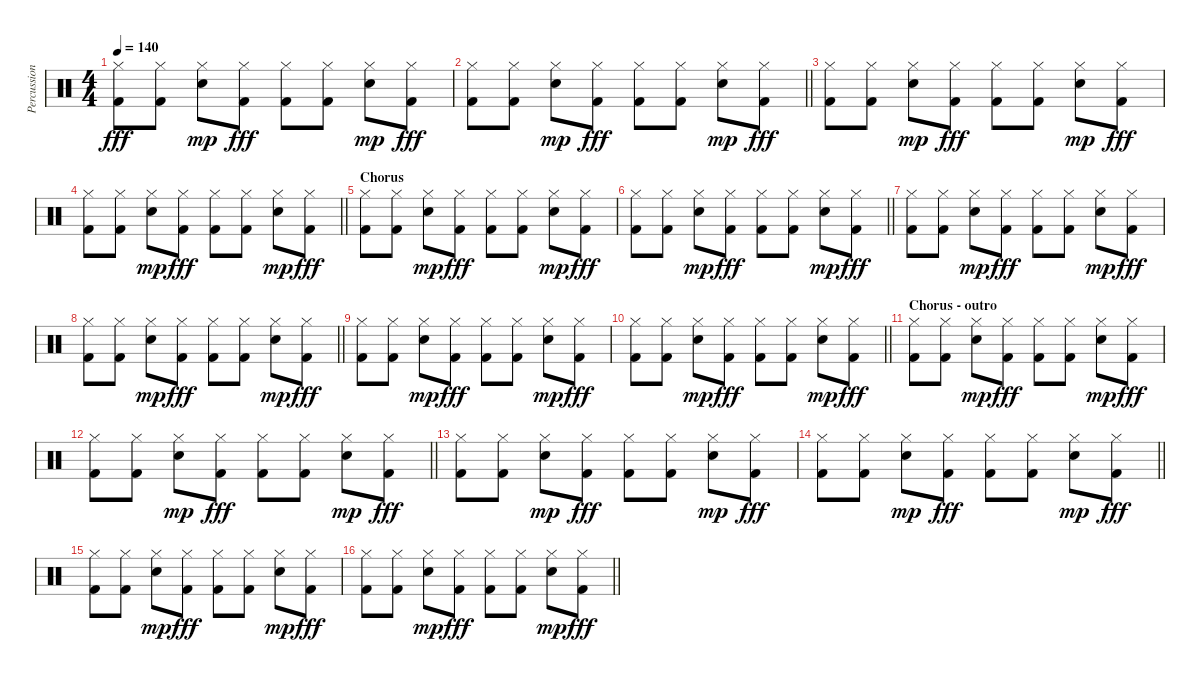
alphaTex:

\track ("Percussioni" "Percussion") {instrument percussion}
\staff {score}
\articulation defaults
\ts (4 4)
\tempo 140
\clef neutral
\ks c
("Hi-Hat (closed)" "Kick (hit) 2").8{dy fff} ("Hi-Hat (closed)" "Kick (hit) 2").8 ("Hi-Hat (closed)" "Snare (hit) 2").8{dy mp} ("Hi-Hat (closed)" "Kick (hit) 2").8{dy fff} ("Hi-Hat (closed)" "Kick (hit) 2").8 ("Hi-Hat (closed)" "Kick (hit) 2").8 ("Hi-Hat (closed)" "Snare (hit) 2").8{dy mp} ("Hi-Hat (closed)" "Kick (hit) 2").8{dy fff} |
\barLineRight lightlight
("Hi-Hat (closed)" "Kick (hit) 2").8 ("Hi-Hat (closed)" "Kick (hit) 2").8 ("Hi-Hat (closed)" "Snare (hit) 2").8{dy mp} ("Hi-Hat (closed)" "Kick (hit) 2").8{dy fff} ("Hi-Hat (closed)" "Kick (hit) 2").8 ("Hi-Hat (closed)" "Kick (hit) 2").8 ("Hi-Hat (closed)" "Snare (hit) 2").8{dy mp} ("Hi-Hat (closed)" "Kick (hit) 2").8{dy fff} |
("Hi-Hat (closed)" "Kick (hit) 2").8 ("Hi-Hat (closed)" "Kick (hit) 2").8 ("Hi-Hat (closed)" "Snare (hit) 2").8{dy mp} ("Hi-Hat (closed)" "Kick (hit) 2").8{dy fff} ("Hi-Hat (closed)" "Kick (hit) 2").8 ("Hi-Hat (closed)" "Kick (hit) 2").8 ("Hi-Hat (closed)" "Snare (hit) 2").8{dy mp} ("Hi-Hat (closed)" "Kick (hit) 2").8{dy fff} |
\barLineRight lightlight
("Hi-Hat (closed)" "Kick (hit) 2").8 ("Hi-Hat (closed)" "Kick (hit) 2").8 ("Hi-Hat (closed)" "Snare (hit) 2").8{dy mp} ("Hi-Hat (closed)" "Kick (hit) 2").8{dy fff} ("Hi-Hat (closed)" "Kick (hit) 2").8 ("Hi-Hat (closed)" "Kick (hit) 2").8 ("Hi-Hat (closed)" "Snare (hit) 2").8{dy mp} ("Hi-Hat (closed)" "Kick (hit) 2").8{dy fff} |
\section ("" "Chorus")
("Hi-Hat (closed)" "Kick (hit) 2").8 ("Hi-Hat (closed)" "Kick (hit) 2").8 ("Hi-Hat (closed)" "Snare (hit) 2").8{dy mp} ("Hi-Hat (closed)" "Kick (hit) 2").8{dy fff} ("Hi-Hat (closed)" "Kick (hit) 2").8 ("Hi-Hat (closed)" "Kick (hit) 2").8 ("Hi-Hat (closed)" "Snare (hit) 2").8{dy mp} ("Hi-Hat (closed)" "Kick (hit) 2").8{dy fff} |
\barLineRight lightlight
("Hi-Hat (closed)" "Kick (hit) 2").8 ("Hi-Hat (closed)" "Kick (hit) 2").8 ("Hi-Hat (closed)" "Snare (hit) 2").8{dy mp} ("Hi-Hat (closed)" "Kick (hit) 2").8{dy fff} ("Hi-Hat (closed)" "Kick (hit) 2").8 ("Hi-Hat (closed)" "Kick (hit) 2").8 ("Hi-Hat (closed)" "Snare (hit) 2").8{dy mp} ("Hi-Hat (closed)" "Kick (hit) 2").8{dy fff} |
("Hi-Hat (closed)" "Kick (hit) 2").8 ("Hi-Hat (closed)" "Kick (hit) 2").8 ("Hi-Hat (closed)" "Snare (hit) 2").8{dy mp} ("Hi-Hat (closed)" "Kick (hit) 2").8{dy fff} ("Hi-Hat (closed)" "Kick (hit) 2").8 ("Hi-Hat (closed)" "Kick (hit) 2").8 ("Hi-Hat (closed)" "Snare (hit) 2").8{dy mp} ("Hi-Hat (closed)" "Kick (hit) 2").8{dy fff} |
\barLineRight lightlight
("Hi-Hat (closed)" "Kick (hit) 2").8 ("Hi-Hat (closed)" "Kick (hit) 2").8 ("Hi-Hat (closed)" "Snare (hit) 2").8{dy mp} ("Hi-Hat (closed)" "Kick (hit) 2").8{dy fff} ("Hi-Hat (closed)" "Kick (hit) 2").8 ("Hi-Hat (closed)" "Kick (hit) 2").8 ("Hi-Hat (closed)" "Snare (hit) 2").8{dy mp} ("Hi-Hat (closed)" "Kick (hit) 2").8{dy fff} |
("Hi-Hat (closed)" "Kick (hit) 2").8 ("Hi-Hat (closed)" "Kick (hit) 2").8 ("Hi-Hat (closed)" "Snare (hit) 2").8{dy mp} ("Hi-Hat (closed)" "Kick (hit) 2").8{dy fff} ("Hi-Hat (closed)" "Kick (hit) 2").8 ("Hi-Hat (closed)" "Kick (hit) 2").8 ("Hi-Hat (closed)" "Snare (hit) 2").8{dy mp} ("Hi-Hat (closed)" "Kick (hit) 2").8{dy fff} |
\barLineRight lightlight
("Hi-Hat (closed)" "Kick (hit) 2").8 ("Hi-Hat (closed)" "Kick (hit) 2").8 ("Hi-Hat (closed)" "Snare (hit) 2").8{dy mp} ("Hi-Hat (closed)" "Kick (hit) 2").8{dy fff} ("Hi-Hat (closed)" "Kick (hit) 2").8 ("Hi-Hat (closed)" "Kick (hit) 2").8 ("Hi-Hat (closed)" "Snare (hit) 2").8{dy mp} ("Hi-Hat (closed)" "Kick (hit) 2").8{dy fff} |
\section ("" "Chorus - outro")
("Hi-Hat (closed)" "Kick (hit) 2").8 ("Hi-Hat (closed)" "Kick (hit) 2").8 ("Hi-Hat (closed)" "Snare (hit) 2").8{dy mp} ("Hi-Hat (closed)" "Kick (hit) 2").8{dy fff} ("Hi-Hat (closed)" "Kick (hit) 2").8 ("Hi-Hat (closed)" "Kick (hit) 2").8 ("Hi-Hat (closed)" "Snare (hit) 2").8{dy mp} ("Hi-Hat (closed)" "Kick (hit) 2").8{dy fff} |
\barLineRight lightlight
("Hi-Hat (closed)" "Kick (hit) 2").8 ("Hi-Hat (closed)" "Kick (hit) 2").8 ("Hi-Hat (closed)" "Snare (hit) 2").8{dy mp} ("Hi-Hat (closed)" "Kick (hit) 2").8{dy fff} ("Hi-Hat (closed)" "Kick (hit) 2").8 ("Hi-Hat (closed)" "Kick (hit) 2").8 ("Hi-Hat (closed)" "Snare (hit) 2").8{dy mp} ("Hi-Hat (closed)" "Kick (hit) 2").8{dy fff} |
("Hi-Hat (closed)" "Kick (hit) 2").8 ("Hi-Hat (closed)" "Kick (hit) 2").8 ("Hi-Hat (closed)" "Snare (hit) 2").8{dy mp} ("Hi-Hat (closed)" "Kick (hit) 2").8{dy fff} ("Hi-Hat (closed)" "Kick (hit) 2").8 ("Hi-Hat (closed)" "Kick (hit) 2").8 ("Hi-Hat (closed)" "Snare (hit) 2").8{dy mp} ("Hi-Hat (closed)" "Kick (hit) 2").8{dy fff} |
\barLineRight lightlight
("Hi-Hat (closed)" "Kick (hit) 2").8 ("Hi-Hat (closed)" "Kick (hit) 2").8 ("Hi-Hat (closed)" "Snare (hit) 2").8{dy mp} ("Hi-Hat (closed)" "Kick (hit) 2").8{dy fff} ("Hi-Hat (closed)" "Kick (hit) 2").8 ("Hi-Hat (closed)" "Kick (hit) 2").8 ("Hi-Hat (closed)" "Snare (hit) 2").8{dy mp} ("Hi-Hat (closed)" "Kick (hit) 2").8{dy fff} |
("Hi-Hat (closed)" "Kick (hit) 2").8 ("Hi-Hat (closed)" "Kick (hit) 2").8 ("Hi-Hat (closed)" "Snare (hit) 2").8{dy mp} ("Hi-Hat (closed)" "Kick (hit) 2").8{dy fff} ("Hi-Hat (closed)" "Kick (hit) 2").8 ("Hi-Hat (closed)" "Kick (hit) 2").8 ("Hi-Hat (closed)" "Snare (hit) 2").8{dy mp} ("Hi-Hat (closed)" "Kick (hit) 2").8{dy fff} |
\barLineRight lightlight
("Hi-Hat (closed)" "Kick (hit) 2").8 ("Hi-Hat (closed)" "Kick (hit) 2").8 ("Hi-Hat (closed)" "Snare (hit) 2").8{dy mp} ("Hi-Hat (closed)" "Kick (hit) 2").8{dy fff} ("Hi-Hat (closed)" "Kick (hit) 2").8 ("Hi-Hat (closed)" "Kick (hit) 2").8 ("Hi-Hat (closed)" "Snare (hit) 2").8{dy mp} ("Hi-Hat (closed)" "Kick (hit) 2").8{dy fff}
